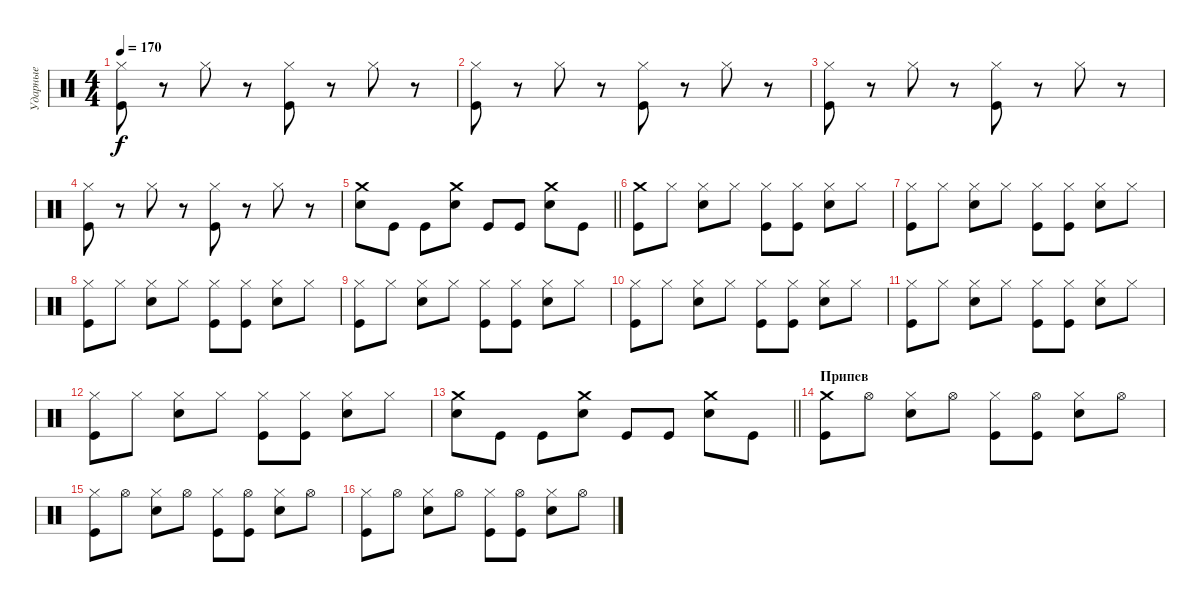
\track ("Ударные" "Ударные") {instrument percussion}
\staff {score}
\articulation defaults
\ts (4 4)
\tempo 170
\clef neutral
\ks c
("Hi-Hat (closed)" "Kick (hit)").8{dy f} r.8 "Hi-Hat (closed)".8 r.8 ("Hi-Hat (closed)" "Kick (hit)").8 r.8 "Hi-Hat (closed)".8 r.8 |
("Hi-Hat (closed)" "Kick (hit)").8 r.8 "Hi-Hat (closed)".8 r.8 ("Hi-Hat (closed)" "Kick (hit)").8 r.8 "Hi-Hat (closed)".8 r.8 |
("Hi-Hat (closed)" "Kick (hit)").8 r.8 "Hi-Hat (closed)".8 r.8 ("Hi-Hat (closed)" "Kick (hit)").8 r.8 "Hi-Hat (closed)".8 r.8 |
("Hi-Hat (closed)" "Kick (hit)").8 r.8 "Hi-Hat (closed)".8 r.8 ("Hi-Hat (closed)" "Kick (hit)").8 r.8 "Hi-Hat (closed)".8 r.8 |
\barLineRight lightlight
("Crash medium (hit)" "Electric Snare (hit)").8 "Kick (hit)".8 "Kick (hit)".8 ("Crash medium (hit)" "Electric Snare (hit)").8 "Kick (hit)".8 "Kick (hit)".8 ("Crash medium (hit)" "Electric Snare (hit)").8 "Kick (hit)".8 |
("Crash medium (hit)" "Kick (hit)").8 "Hi-Hat (closed)".8 ("Hi-Hat (closed)" "Electric Snare (hit)").8 "Hi-Hat (closed)".8 ("Hi-Hat (closed)" "Kick (hit)").8 ("Hi-Hat (closed)" "Kick (hit)").8 ("Hi-Hat (closed)" "Electric Snare (hit)").8 "Hi-Hat (closed)".8 |
("Hi-Hat (closed)" "Kick (hit)").8 "Hi-Hat (closed)".8 ("Hi-Hat (closed)" "Electric Snare (hit)").8 "Hi-Hat (closed)".8 ("Hi-Hat (closed)" "Kick (hit)").8 ("Hi-Hat (closed)" "Kick (hit)").8 ("Hi-Hat (closed)" "Electric Snare (hit)").8 "Hi-Hat (closed)".8 |
("Hi-Hat (closed)" "Kick (hit)").8 "Hi-Hat (closed)".8 ("Hi-Hat (closed)" "Electric Snare (hit)").8 "Hi-Hat (closed)".8 ("Hi-Hat (closed)" "Kick (hit)").8 ("Hi-Hat (closed)" "Kick (hit)").8 ("Hi-Hat (closed)" "Electric Snare (hit)").8 "Hi-Hat (closed)".8 |
("Hi-Hat (closed)" "Kick (hit)").8 "Hi-Hat (closed)".8 ("Hi-Hat (closed)" "Electric Snare (hit)").8 "Hi-Hat (closed)".8 ("Hi-Hat (closed)" "Kick (hit)").8 ("Hi-Hat (closed)" "Kick (hit)").8 ("Hi-Hat (closed)" "Electric Snare (hit)").8 "Hi-Hat (closed)".8 |
("Hi-Hat (closed)" "Kick (hit)").8 "Hi-Hat (closed)".8 ("Hi-Hat (closed)" "Electric Snare (hit)").8 "Hi-Hat (closed)".8 ("Hi-Hat (closed)" "Kick (hit)").8 ("Hi-Hat (closed)" "Kick (hit)").8 ("Hi-Hat (closed)" "Electric Snare (hit)").8 "Hi-Hat (closed)".8 |
("Hi-Hat (closed)" "Kick (hit)").8 "Hi-Hat (closed)".8 ("Hi-Hat (closed)" "Electric Snare (hit)").8 "Hi-Hat (closed)".8 ("Hi-Hat (closed)" "Kick (hit)").8 ("Hi-Hat (closed)" "Kick (hit)").8 ("Hi-Hat (closed)" "Electric Snare (hit)").8 "Hi-Hat (closed)".8 |
("Hi-Hat (closed)" "Kick (hit)").8 "Hi-Hat (closed)".8 ("Hi-Hat (closed)" "Electric Snare (hit)").8 "Hi-Hat (closed)".8 ("Hi-Hat (closed)" "Kick (hit)").8 ("Hi-Hat (closed)" "Kick (hit)").8 ("Hi-Hat (closed)" "Electric Snare (hit)").8 "Hi-Hat (closed)".8 |
\barLineRight lightlight
("Crash medium (hit)" "Electric Snare (hit)").8 "Kick (hit)".8 "Kick (hit)".8 ("Crash medium (hit)" "Electric Snare (hit)").8 "Kick (hit)".8 "Kick (hit)".8 ("Crash medium (hit)" "Electric Snare (hit)").8 "Kick (hit)".8 |
\section ("" "Припев")
("Crash medium (hit)" "Kick (hit)").8 "Hi-Hat (open)".8 ("Hi-Hat (closed)" "Electric Snare (hit)").8 "Hi-Hat (open)".8 ("Hi-Hat (closed)" "Kick (hit)").8 ("Hi-Hat (open)" "Kick (hit)").8 ("Hi-Hat (closed)" "Electric Snare (hit)").8 "Hi-Hat (open)".8 |
("Hi-Hat (closed)" "Kick (hit)").8 "Hi-Hat (open)".8 ("Hi-Hat (closed)" "Electric Snare (hit)").8 "Hi-Hat (open)".8 ("Hi-Hat (closed)" "Kick (hit)").8 ("Hi-Hat (open)" "Kick (hit)").8 ("Hi-Hat (closed)" "Electric Snare (hit)").8 "Hi-Hat (open)".8 |
("Hi-Hat (closed)" "Kick (hit)").8 "Hi-Hat (open)".8 ("Hi-Hat (closed)" "Electric Snare (hit)").8 "Hi-Hat (open)".8 ("Hi-Hat (closed)" "Kick (hit)").8 ("Hi-Hat (open)" "Kick (hit)").8 ("Hi-Hat (closed)" "Electric Snare (hit)").8 "Hi-Hat (open)".8
